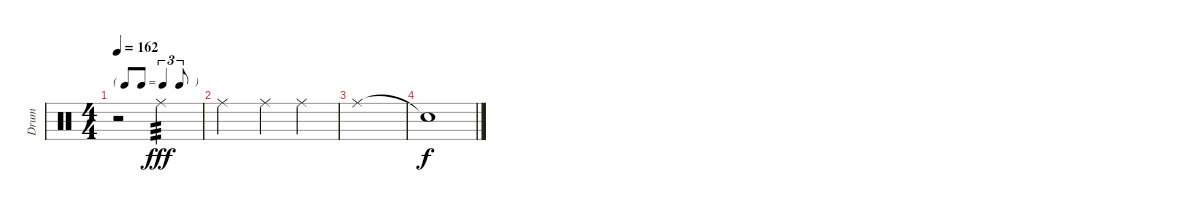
\track ("Drum" "Drum") {instrument percussion}
\staff {score}
\articulation defaults
\ts (4 4)
\tf triplet8th
\tempo 162
\clef neutral
\ks c
r.2{dy fff} "Ride (middle)".2{tp 3} |
"Ride (middle)".2 "Ride (middle)".4 "Ride (middle)".4 |
"Ride (middle)".1 |
"Snare (hit)"{t}.1{dy f}
